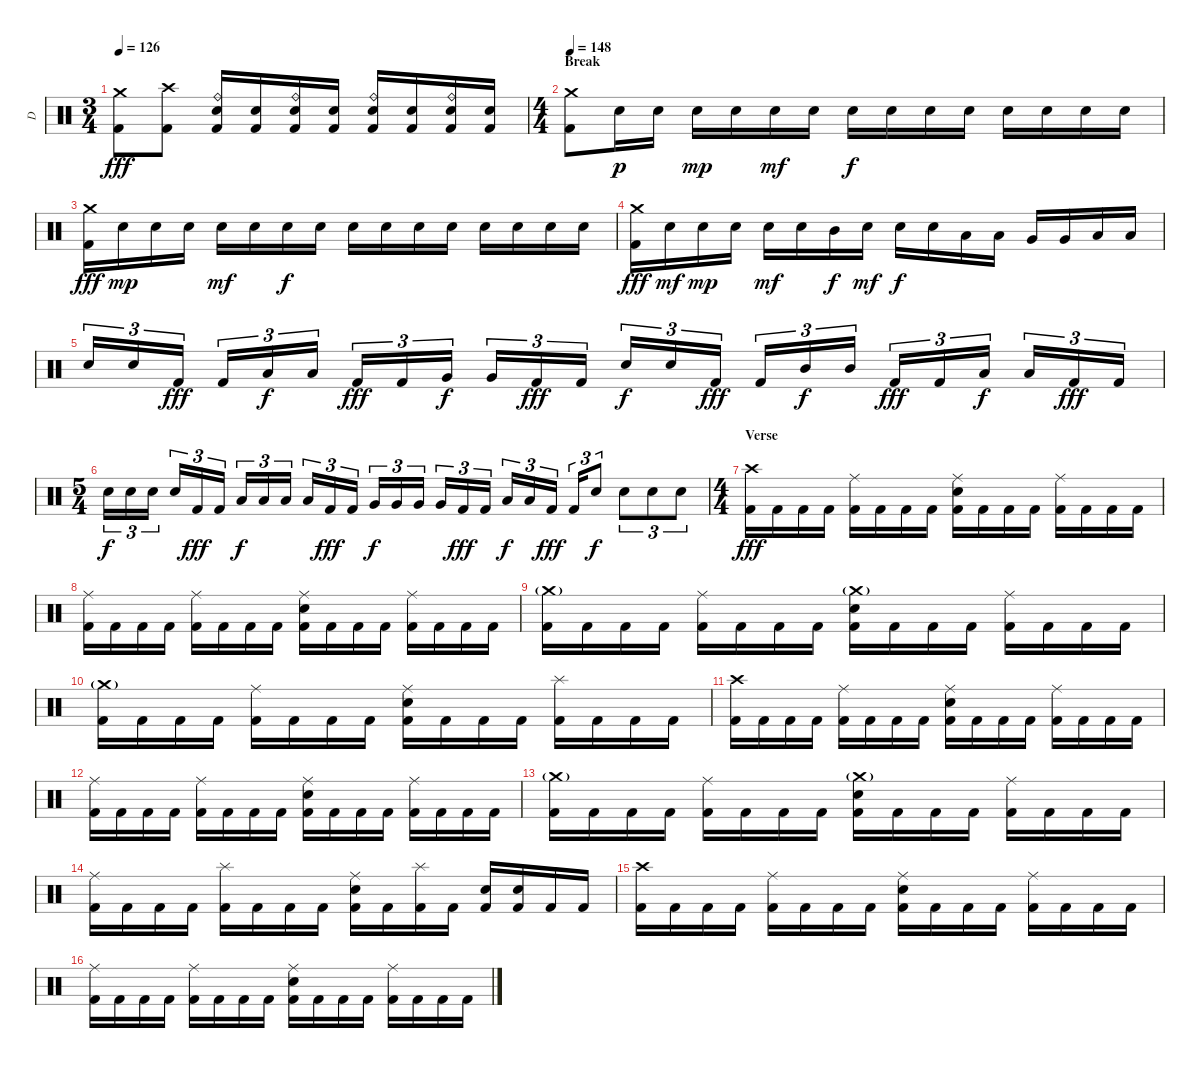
\track ("D" "D") {instrument percussion}
\staff {score}
\articulation defaults
\ts (3 4)
\tempo 126
\clef neutral
\ks c
("Crash medium (hit)" "Kick (hit) 2").8{dy fff} ("Crash high (hit)" "Kick (hit) 2").8 ("Ride (bell)" "Electric Snare (hit)" "Kick (hit) 2").16 ("Electric Snare (hit)" "Kick (hit) 2").16 ("Ride (bell)" "Electric Snare (hit)" "Kick (hit) 2").16 ("Electric Snare (hit)" "Kick (hit) 2").16 ("Ride (bell)" "Electric Snare (hit)" "Kick (hit) 2").16 ("Electric Snare (hit)" "Kick (hit) 2").16 ("Ride (bell)" "Electric Snare (hit)" "Kick (hit) 2").16 ("Electric Snare (hit)" "Kick (hit) 2").16 |
\ts (4 4)
\section ("" "Break")
\tempo 148
("Crash medium (hit)" "Kick (hit) 2").8 "Electric Snare (hit)".16{dy p} "Electric Snare (hit)".16 "Electric Snare (hit)".16{dy mp} "Electric Snare (hit)".16 "Electric Snare (hit)".16{dy mf} "Electric Snare (hit)".16 "Electric Snare (hit)".16{dy f} "Electric Snare (hit)".16 "Electric Snare (hit)".16 "Electric Snare (hit)".16 "Electric Snare (hit)".16 "Electric Snare (hit)".16 "Electric Snare (hit)".16 "Electric Snare (hit)".16 |
("Crash medium (hit)" "Kick (hit) 2").16{dy fff} "Electric Snare (hit)".16{dy mp} "Electric Snare (hit)".16 "Electric Snare (hit)".16 "Electric Snare (hit)".16{dy mf} "Electric Snare (hit)".16 "Electric Snare (hit)".16{dy f} "Electric Snare (hit)".16 "Electric Snare (hit)".16 "Electric Snare (hit)".16 "Electric Snare (hit)".16 "Electric Snare (hit)".16 "Electric Snare (hit)".16 "Electric Snare (hit)".16 "Electric Snare (hit)".16 "Electric Snare (hit)".16 |
("Crash medium (hit)" "Kick (hit) 2").16{dy fff} "Electric Snare (hit)".16{dy mf} "Electric Snare (hit)".16{dy mp} "Electric Snare (hit)".16 "Electric Snare (hit)".16{dy mf} "Electric Snare (hit)".16 "Mid Tom (hit)".16{dy f} "Electric Snare (hit)".16{dy mf} "Electric Snare (hit)".16{dy f} "Electric Snare (hit)".16 "Low Tom (hit)".16 "Low Tom (hit)".16 "Very Low Tom (hit)".16 "Very Low Tom (hit)".16 "Low Floor Tom (hit)".16 "Low Floor Tom (hit)".16 |
"Electric Snare (hit)".16{tu (3 2)} "Electric Snare (hit)".16{tu (3 2)} "Kick (hit) 2".16{tu (3 2) dy fff} "Kick (hit) 2".16{tu (3 2)} "Low Tom (hit)".16{tu (3 2) dy f} "Low Tom (hit)".16{tu (3 2)} "Kick (hit) 2".16{tu (3 2) dy fff} "Kick (hit) 2".16{tu (3 2)} "Very Low Tom (hit)".16{tu (3 2) dy f} "Very Low Tom (hit)".16{tu (3 2)} "Kick (hit) 2".16{tu (3 2) dy fff} "Kick (hit) 2".16{tu (3 2)} "Electric Snare (hit)".16{tu (3 2) dy f} "Electric Snare (hit)".16{tu (3 2)} "Kick (hit) 2".16{tu (3 2) dy fff} "Kick (hit) 2".16{tu (3 2)} "Mid Tom (hit)".16{tu (3 2) dy f} "Mid Tom (hit)".16{tu (3 2)} "Kick (hit) 2".16{tu (3 2) dy fff} "Kick (hit) 2".16{tu (3 2)} "Low Tom (hit)".16{tu (3 2) dy f} "Low Tom (hit)".16{tu (3 2)} "Kick (hit) 2".16{tu (3 2) dy fff} "Kick (hit) 2".16{tu (3 2)} |
\ts (5 4)
"Electric Snare (hit)".16{tu (3 2) dy f} "Electric Snare (hit)".16{tu (3 2)} "Electric Snare (hit)".16{tu (3 2)} "Electric Snare (hit)".16{tu (3 2)} "Kick (hit) 2".16{tu (3 2) dy fff} "Kick (hit) 2".16{tu (3 2)} "Low Tom (hit)".16{tu (3 2) dy f} "Low Tom (hit)".16{tu (3 2)} "Low Tom (hit)".16{tu (3 2)} "Low Tom (hit)".16{tu (3 2)} "Kick (hit) 2".16{tu (3 2) dy fff} "Kick (hit) 2".16{tu (3 2)} "Very Low Tom (hit)".16{tu (3 2) dy f} "Very Low Tom (hit)".16{tu (3 2)} "Very Low Tom (hit)".16{tu (3 2)} "Very Low Tom (hit)".16{tu (3 2)} "Kick (hit) 2".16{tu (3 2) dy fff} "Kick (hit) 2".16{tu (3 2)} "Low Floor Tom (hit)".16{tu (3 2) dy f} "Low Floor Tom (hit)".16{tu (3 2)} "Kick (hit) 2".16{tu (3 2) dy fff} "Kick (hit) 2".16{tu (3 2)} "Electric Snare (hit)".8{tu (3 2) dy f} "Electric Snare (hit)".8{tu (3 2)} "Electric Snare (hit)".8{tu (3 2)} "Electric Snare (hit)".8{tu (3 2)} |
\ts (4 4)
\section ("" "Verse")
("Crash high (hit)" "Kick (hit) 2").16{dy fff} "Kick (hit) 2".16 "Kick (hit) 2".16 "Kick (hit) 2".16 ("Ride (middle)" "Kick (hit) 2").16 "Kick (hit) 2".16 "Kick (hit) 2".16 "Kick (hit) 2".16 ("Ride (middle)" "Electric Snare (hit)" "Kick (hit) 2").16 "Kick (hit) 2".16 "Kick (hit) 2".16 "Kick (hit) 2".16 ("Ride (middle)" "Kick (hit) 2").16 "Kick (hit) 2".16 "Kick (hit) 2".16 "Kick (hit) 2".16 |
("Ride (middle)" "Kick (hit) 2").16 "Kick (hit) 2".16 "Kick (hit) 2".16 "Kick (hit) 2".16 ("Ride (middle)" "Kick (hit) 2").16 "Kick (hit) 2".16 "Kick (hit) 2".16 "Kick (hit) 2".16 ("Ride (middle)" "Electric Snare (hit)" "Kick (hit) 2").16 "Kick (hit) 2".16 "Kick (hit) 2".16 "Kick (hit) 2".16 ("Ride (middle)" "Kick (hit) 2").16 "Kick (hit) 2".16 "Kick (hit) 2".16 "Kick (hit) 2".16 |
("Crash medium (hit)"{g} "Kick (hit) 2").16 "Kick (hit) 2".16 "Kick (hit) 2".16 "Kick (hit) 2".16 ("Ride (middle)" "Kick (hit) 2").16 "Kick (hit) 2".16 "Kick (hit) 2".16 "Kick (hit) 2".16 ("Crash medium (hit)"{g} "Electric Snare (hit)" "Kick (hit) 2").16 "Kick (hit) 2".16 "Kick (hit) 2".16 "Kick (hit) 2".16 ("Ride (middle)" "Kick (hit) 2").16 "Kick (hit) 2".16 "Kick (hit) 2".16 "Kick (hit) 2".16 |
("Crash medium (hit)"{g} "Kick (hit) 2").16 "Kick (hit) 2".16 "Kick (hit) 2".16 "Kick (hit) 2".16 ("Ride (middle)" "Kick (hit) 2").16 "Kick (hit) 2".16 "Kick (hit) 2".16 "Kick (hit) 2".16 ("Ride (middle)" "Electric Snare (hit)" "Kick (hit) 2").16 "Kick (hit) 2".16 "Kick (hit) 2".16 "Kick (hit) 2".16 ("Splash (hit)" "Kick (hit) 2").16 "Kick (hit) 2".16 "Kick (hit) 2".16 "Kick (hit) 2".16 |
("Crash high (hit)" "Kick (hit) 2").16 "Kick (hit) 2".16 "Kick (hit) 2".16 "Kick (hit) 2".16 ("Ride (middle)" "Kick (hit) 2").16 "Kick (hit) 2".16 "Kick (hit) 2".16 "Kick (hit) 2".16 ("Ride (middle)" "Electric Snare (hit)" "Kick (hit) 2").16 "Kick (hit) 2".16 "Kick (hit) 2".16 "Kick (hit) 2".16 ("Ride (middle)" "Kick (hit) 2").16 "Kick (hit) 2".16 "Kick (hit) 2".16 "Kick (hit) 2".16 |
("Ride (middle)" "Kick (hit) 2").16 "Kick (hit) 2".16 "Kick (hit) 2".16 "Kick (hit) 2".16 ("Ride (middle)" "Kick (hit) 2").16 "Kick (hit) 2".16 "Kick (hit) 2".16 "Kick (hit) 2".16 ("Ride (middle)" "Electric Snare (hit)" "Kick (hit) 2").16 "Kick (hit) 2".16 "Kick (hit) 2".16 "Kick (hit) 2".16 ("Ride (middle)" "Kick (hit) 2").16 "Kick (hit) 2".16 "Kick (hit) 2".16 "Kick (hit) 2".16 |
("Crash medium (hit)"{g} "Kick (hit) 2").16 "Kick (hit) 2".16 "Kick (hit) 2".16 "Kick (hit) 2".16 ("Ride (middle)" "Kick (hit) 2").16 "Kick (hit) 2".16 "Kick (hit) 2".16 "Kick (hit) 2".16 ("Crash medium (hit)"{g} "Electric Snare (hit)" "Kick (hit) 2").16 "Kick (hit) 2".16 "Kick (hit) 2".16 "Kick (hit) 2".16 ("Ride (middle)" "Kick (hit) 2").16 "Kick (hit) 2".16 "Kick (hit) 2".16 "Kick (hit) 2".16 |
("Ride (middle)" "Kick (hit) 2").16 "Kick (hit) 2".16 "Kick (hit) 2".16 "Kick (hit) 2".16 ("Splash (hit)" "Kick (hit) 2").16 "Kick (hit) 2".16 "Kick (hit) 2".16 "Kick (hit) 2".16 ("Ride (middle)" "Electric Snare (hit)" "Kick (hit) 2").16 "Kick (hit) 2".16 ("Splash (hit)" "Kick (hit) 2").16 "Kick (hit) 2".16 ("Electric Snare (hit)" "Kick (hit) 2").16 ("Electric Snare (hit)" "Kick (hit) 2").16 "Kick (hit) 2".16 "Kick (hit) 2".16 |
("Crash high (hit)" "Kick (hit) 2").16 "Kick (hit) 2".16 "Kick (hit) 2".16 "Kick (hit) 2".16 ("Ride (middle)" "Kick (hit) 2").16 "Kick (hit) 2".16 "Kick (hit) 2".16 "Kick (hit) 2".16 ("Ride (middle)" "Electric Snare (hit)" "Kick (hit) 2").16 "Kick (hit) 2".16 "Kick (hit) 2".16 "Kick (hit) 2".16 ("Ride (middle)" "Kick (hit) 2").16 "Kick (hit) 2".16 "Kick (hit) 2".16 "Kick (hit) 2".16 |
("Ride (middle)" "Kick (hit) 2").16 "Kick (hit) 2".16 "Kick (hit) 2".16 "Kick (hit) 2".16 ("Ride (middle)" "Kick (hit) 2").16 "Kick (hit) 2".16 "Kick (hit) 2".16 "Kick (hit) 2".16 ("Ride (middle)" "Electric Snare (hit)" "Kick (hit) 2").16 "Kick (hit) 2".16 "Kick (hit) 2".16 "Kick (hit) 2".16 ("Ride (middle)" "Kick (hit) 2").16 "Kick (hit) 2".16 "Kick (hit) 2".16 "Kick (hit) 2".16
